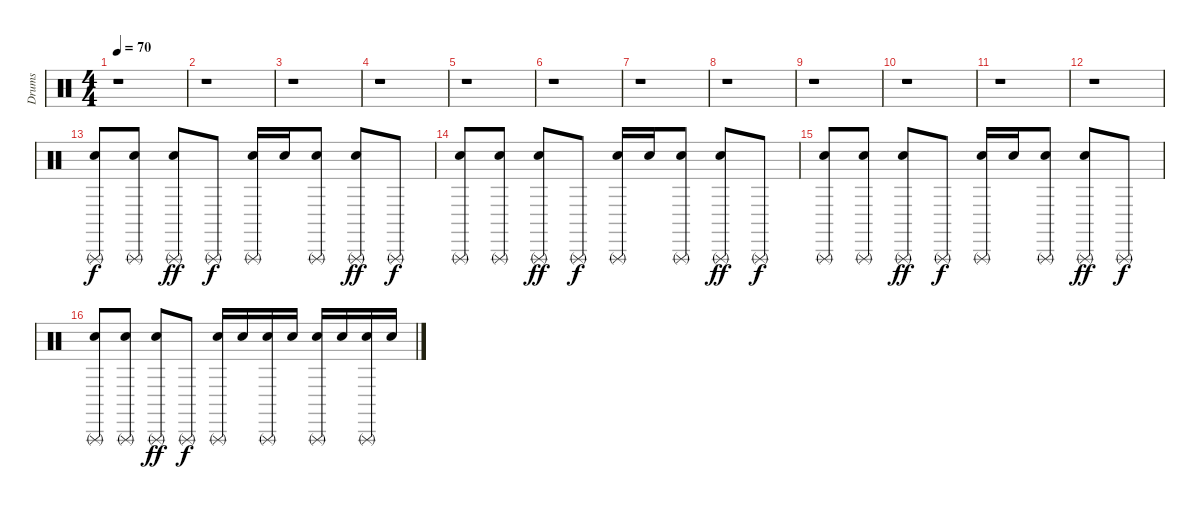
\track ("Drums" "Drums") {instrument percussion}
\staff {score}
\articulation defaults
\ts (4 4)
\tempo 70
\clef neutral
\ks c
r.1{dy f} |
r.1 |
r.1 |
r.1 |
r.1 |
r.1 |
r.1 |
r.1 |
r.1 |
r.1 |
r.1 |
r.1 |
("Triangle (rnute)" "Snare (hit) 2").8 ("Triangle (rnute)" "Snare (hit) 2").8 ("Triangle (rnute)" "Electric Snare (hit)").8{dy ff} "Triangle (rnute)".8{dy f} ("Triangle (rnute)" "Snare (hit) 2").16 "Snare (hit) 2".16 ("Triangle (rnute)" "Snare (hit) 2").8 ("Triangle (rnute)" "Electric Snare (hit)").8{dy ff} "Triangle (rnute)".8{dy f} |
("Triangle (rnute)" "Snare (hit) 2").8 ("Triangle (rnute)" "Snare (hit) 2").8 ("Triangle (rnute)" "Electric Snare (hit)").8{dy ff} "Triangle (rnute)".8{dy f} ("Triangle (rnute)" "Snare (hit) 2").16 "Snare (hit) 2".16 ("Triangle (rnute)" "Snare (hit) 2").8 ("Triangle (rnute)" "Electric Snare (hit)").8{dy ff} "Triangle (rnute)".8{dy f} |
("Triangle (rnute)" "Snare (hit) 2").8 ("Triangle (rnute)" "Snare (hit) 2").8 ("Triangle (rnute)" "Electric Snare (hit)").8{dy ff} "Triangle (rnute)".8{dy f} ("Triangle (rnute)" "Snare (hit) 2").16 "Snare (hit) 2".16 ("Triangle (rnute)" "Snare (hit) 2").8 ("Triangle (rnute)" "Electric Snare (hit)").8{dy ff} "Triangle (rnute)".8{dy f} |
("Triangle (rnute)" "Snare (hit) 2").8 ("Triangle (rnute)" "Snare (hit) 2").8 ("Triangle (rnute)" "Electric Snare (hit)").8{dy ff} "Triangle (rnute)".8{dy f} ("Triangle (rnute)" "Snare (hit) 2").16 "Snare (hit) 2".16 ("Triangle (rnute)" "Snare (hit) 2").16 "Snare (hit) 2".16 ("Triangle (rnute)" "Snare (hit) 2").16 "Snare (hit) 2".16 ("Triangle (rnute)" "Snare (hit) 2").16 "Snare (hit) 2".16
